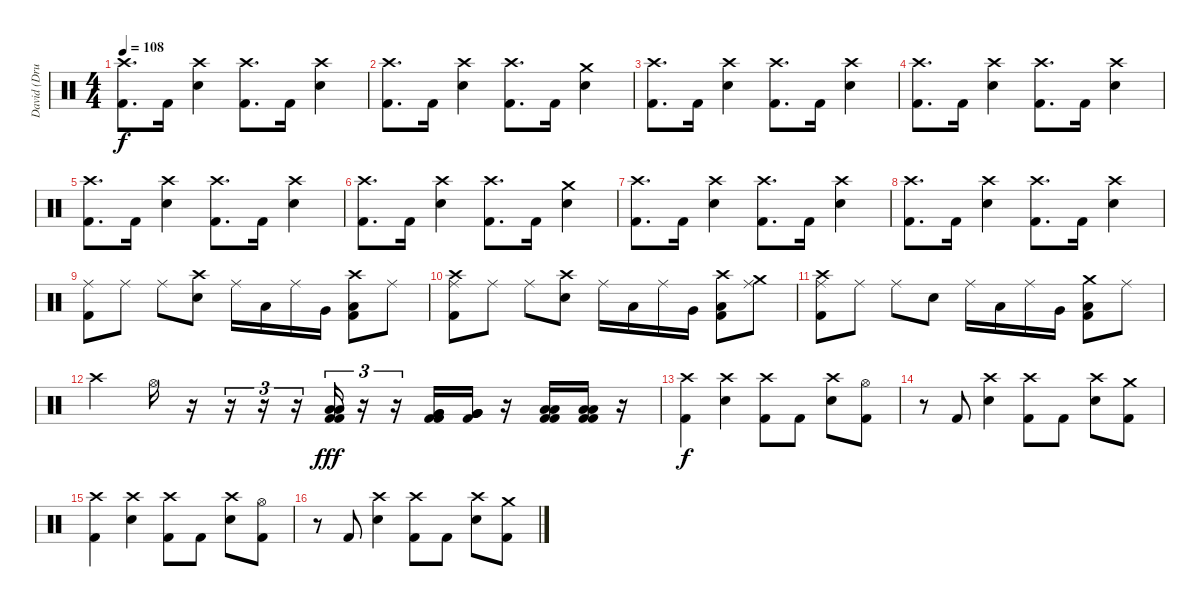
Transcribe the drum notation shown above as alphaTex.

\track ("David (Drumkit)" "David (Dru") {instrument percussion}
\staff {score}
\articulation defaults
\ts (4 4)
\tempo 108
\clef neutral
\ks c
("Crash high (hit)" "Kick (hit) 2").8{d dy f} "Kick (hit) 2".16 ("Crash high (hit)" "Electric Snare (hit)").4 ("Crash high (hit)" "Kick (hit) 2").8{d} "Kick (hit) 2".16 ("Crash high (hit)" "Electric Snare (hit)").4 |
("Crash high (hit)" "Kick (hit) 2").8{d} "Kick (hit) 2".16 ("Crash high (hit)" "Electric Snare (hit)").4 ("Crash high (hit)" "Kick (hit) 2").8{d} "Kick (hit) 2".16 ("Crash medium (hit)" "Electric Snare (hit)").4 |
("Crash high (hit)" "Kick (hit) 2").8{d} "Kick (hit) 2".16 ("Crash high (hit)" "Electric Snare (hit)").4 ("Crash high (hit)" "Kick (hit) 2").8{d} "Kick (hit) 2".16 ("Crash high (hit)" "Electric Snare (hit)").4 |
("Crash high (hit)" "Kick (hit) 2").8{d} "Kick (hit) 2".16 ("Crash high (hit)" "Electric Snare (hit)").4 ("Crash high (hit)" "Kick (hit) 2").8{d} "Kick (hit) 2".16 ("Crash high (hit)" "Electric Snare (hit)").4 |
("Crash high (hit)" "Kick (hit) 2").8{d} "Kick (hit) 2".16 ("Crash high (hit)" "Electric Snare (hit)").4 ("Crash high (hit)" "Kick (hit) 2").8{d} "Kick (hit) 2".16 ("Crash high (hit)" "Electric Snare (hit)").4 |
("Crash high (hit)" "Kick (hit) 2").8{d} "Kick (hit) 2".16 ("Crash high (hit)" "Electric Snare (hit)").4 ("Crash high (hit)" "Kick (hit) 2").8{d} "Kick (hit) 2".16 ("Crash medium (hit)" "Electric Snare (hit)").4 |
("Crash high (hit)" "Kick (hit) 2").8{d} "Kick (hit) 2".16 ("Crash high (hit)" "Electric Snare (hit)").4 ("Crash high (hit)" "Kick (hit) 2").8{d} "Kick (hit) 2".16 ("Crash high (hit)" "Electric Snare (hit)").4 |
("Crash high (hit)" "Kick (hit) 2").8{d} "Kick (hit) 2".16 ("Crash high (hit)" "Electric Snare (hit)").4 ("Crash high (hit)" "Kick (hit) 2").8{d} "Kick (hit) 2".16 ("Crash high (hit)" "Electric Snare (hit)").4 |
("Ride (middle)" "Kick (hit) 2").8 "Ride (middle)".8 "Ride (middle)".8 ("Crash high (hit)" "Electric Snare (hit)").8 "Ride (middle)".16 "Low Tom (hit)".16 "Ride (middle)".16 "Very Low Tom (hit)".16 ("Crash high (hit)" "Low Floor Tom (hit)" "Kick (hit) 2").8 "Ride (middle)".8 |
("Crash high (hit)" "Ride (middle)" "Kick (hit) 2").8 "Ride (middle)".8 "Ride (middle)".8 ("Crash high (hit)" "Electric Snare (hit)").8 "Ride (middle)".16 "Low Tom (hit)".16 "Ride (middle)".16 "Very Low Tom (hit)".16 ("Crash high (hit)" "Low Floor Tom (hit)" "Kick (hit) 2").8 ("Crash medium (hit)" "Ride (middle)").8 |
("Crash high (hit)" "Ride (middle)" "Kick (hit) 2").8 "Ride (middle)".8 "Ride (middle)".8 "Electric Snare (hit)".8 "Ride (middle)".16 "Low Tom (hit)".16 "Ride (middle)".16 "Very Low Tom (hit)".16 ("Crash medium (hit)" "Low Floor Tom (hit)" "Kick (hit) 2").8 "Ride (middle)".8 |
"Crash high (hit)".4 "Hi-Hat (open)".16 r.16 r.16{tu (3 2)} r.16{tu (3 2)} r.16{tu (3 2)} ("Low Tom (hit)" "Low Tom (hit)" "Kick (hit) 2" "Kick (hit) 2").16{tu (3 2) dy fff} r.16{tu (3 2)} r.16{tu (3 2)} ("Very Low Tom (hit)" "Very Low Tom (hit)" "Kick (hit) 2" "Kick (hit) 2").16 ("Very Low Tom (hit)" "Very Low Tom (hit)" "Kick (hit) 2" "Very Low Tom (hit)").16 r.16 ("Low Floor Tom (hit)" "Low Floor Tom (hit)" "Kick (hit) 2" "Kick (hit) 2").16 ("Low Floor Tom (hit)" "Low Floor Tom (hit)" "Kick (hit) 2" "Kick (hit) 2").16 r.16 |
("Crash high (hit)" "Kick (hit) 2").4{dy f} ("Crash high (hit)" "Electric Snare (hit)").4 ("Crash high (hit)" "Kick (hit) 2").8 "Kick (hit) 2".8 ("Crash high (hit)" "Electric Snare (hit)").8 ("Hi-Hat (open)" "Kick (hit) 2").8 |
r.8 "Kick (hit) 2".8 ("Crash high (hit)" "Electric Snare (hit)").4 ("Crash high (hit)" "Kick (hit) 2").8 "Kick (hit) 2".8 ("Crash high (hit)" "Electric Snare (hit)").8 ("Crash medium (hit)" "Kick (hit) 2").8 |
("Crash high (hit)" "Kick (hit) 2").4 ("Crash high (hit)" "Electric Snare (hit)").4 ("Crash high (hit)" "Kick (hit) 2").8 "Kick (hit) 2".8 ("Crash high (hit)" "Electric Snare (hit)").8 ("Hi-Hat (open)" "Kick (hit) 2").8 |
r.8 "Kick (hit) 2".8 ("Crash high (hit)" "Electric Snare (hit)").4 ("Crash high (hit)" "Kick (hit) 2").8 "Kick (hit) 2".8 ("Crash high (hit)" "Electric Snare (hit)").8 ("Crash medium (hit)" "Kick (hit) 2").8
